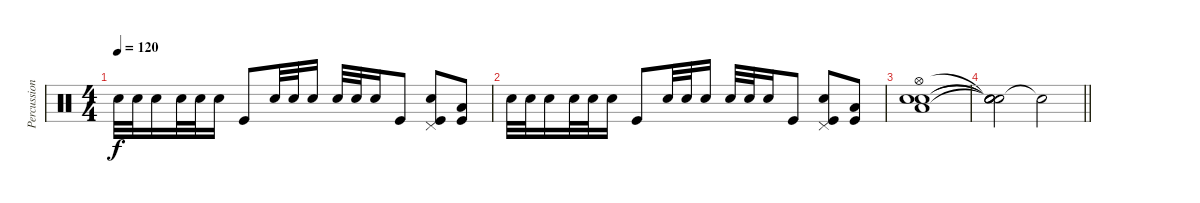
\track ("Percussion" "Percussion") {instrument percussion}
\staff {score}
\articulation defaults
\ts (4 4)
\tempo 120
\clef neutral
\ks c "Electric Snare (hit)".32{dy f} "Electric Snare (hit)".32 "Electric Snare (hit)".16 "Electric Snare (hit)".32 "Electric Snare (hit)".32 "Electric Snare (hit)".16 "Kick (hit)".8 "Electric Snare (hit)".32 "Electric Snare (hit)".32 "Electric Snare (hit)".16 "Electric Snare (hit)".32 "Electric Snare (hit)".32 "Electric Snare (hit)".16 "Kick (hit)".8
("Snare (hit) 2" "Kick (hit)" "Pedal Hi-Hat (hit)").8 ("Low Tom (hit)" "Kick (hit)").8 |
"Electric Snare (hit)".32 "Electric Snare (hit)".32 "Electric Snare (hit)".16 "Electric Snare (hit)".32 "Electric Snare (hit)".32 "Electric Snare (hit)".16 "Kick (hit)".8 "Electric Snare (hit)".32 "Electric Snare (hit)".32 "Electric Snare (hit)".16 "Electric Snare (hit)".32 "Electric Snare (hit)".32 "Electric Snare (hit)".16 "Kick (hit)".8 ("Snare (hit) 2" "Kick (hit)" "Pedal Hi-Hat (hit)").8 ("Low Tom (hit)" "Kick (hit)").8 |
("Snare (hit) 2" "Electric Snare (hit)" "Low Floor Tom (hit)" "Hi-Hat (open)").1 |
\barLineRight lightlight
("Snare (hit)"{t} "Snare (hit)"{t} "Snare (hit)"{t} "Snare (hit)"{t}).2 "Snare (hit)"{t}.2
